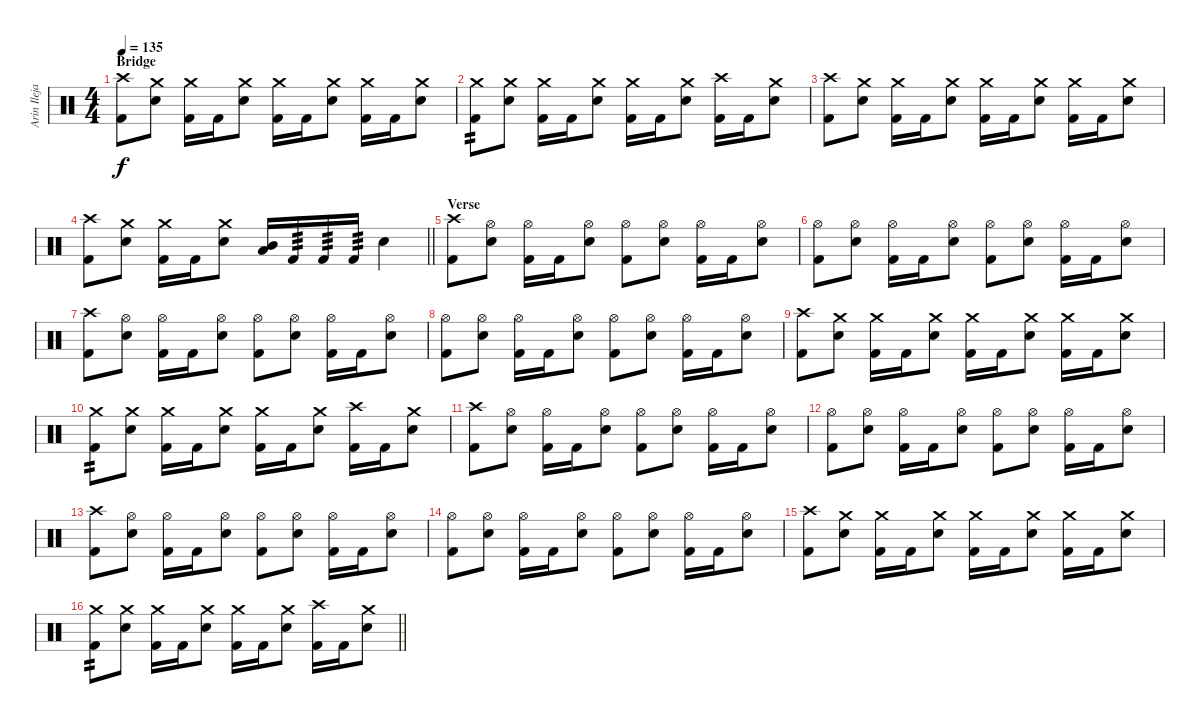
\track ("Arin Ilejay" "Arin Ileja") {instrument percussion}
\staff {score}
\articulation defaults
\ts (4 4)
\section ("" "Bridge")
\tempo 135
\clef neutral
\ks c
("Crash high (hit)" "Kick (hit) 2").8{dy f} ("Crash medium (hit)" "Electric Snare (hit)").8 ("Crash medium (hit)" "Kick (hit) 2").16 "Kick (hit) 2".16 ("Crash medium (hit)" "Electric Snare (hit)").8 ("Crash medium (hit)" "Kick (hit) 2").16 "Kick (hit) 2".16 ("Crash medium (hit)" "Electric Snare (hit)").8 ("Crash medium (hit)" "Kick (hit) 2").16 "Kick (hit) 2".16 ("Crash medium (hit)" "Electric Snare (hit)").8 |
("Crash medium (hit)" "Kick (hit) 2").8{tp 2} ("Crash medium (hit)" "Electric Snare (hit)").8 ("Crash medium (hit)" "Kick (hit) 2").16 "Kick (hit) 2".16 ("Crash medium (hit)" "Electric Snare (hit)").8 ("Crash medium (hit)" "Kick (hit) 2").16 "Kick (hit) 2".16 ("Crash medium (hit)" "Electric Snare (hit)").8 ("Crash high (hit)" "Kick (hit) 2").16 "Kick (hit) 2".16 ("Crash medium (hit)" "Electric Snare (hit)").8 |
("Crash high (hit)" "Kick (hit) 2").8 ("Crash medium (hit)" "Electric Snare (hit)").8 ("Crash medium (hit)" "Kick (hit) 2").16 "Kick (hit) 2".16 ("Crash medium (hit)" "Electric Snare (hit)").8 ("Crash medium (hit)" "Kick (hit) 2").16 "Kick (hit) 2".16 ("Crash medium (hit)" "Electric Snare (hit)").8 ("Crash medium (hit)" "Kick (hit) 2").16 "Kick (hit) 2".16 ("Crash medium (hit)" "Electric Snare (hit)").8 |
\barLineRight lightlight
("Crash high (hit)" "Kick (hit) 2").8 ("Crash medium (hit)" "Electric Snare (hit)").8 ("Crash medium (hit)" "Kick (hit) 2").16 "Kick (hit) 2".16 ("Crash medium (hit)" "Electric Snare (hit)").8 ("Mid Tom (hit)" "Low Tom (hit)").16 "Kick (hit) 2".16{tp 3} "Kick (hit) 2".16{tp 3} "Kick (hit) 2".16{tp 3} "Electric Snare (hit)".4 |
\section ("" "Verse")
("Crash high (hit)" "Kick (hit) 2").8 ("Hi-Hat (open)" "Electric Snare (hit)").8 ("Hi-Hat (open)" "Kick (hit) 2").16 "Kick (hit) 2".16 ("Hi-Hat (open)" "Electric Snare (hit)").8 ("Hi-Hat (open)" "Kick (hit) 2").8 ("Hi-Hat (open)" "Electric Snare (hit)").8 ("Hi-Hat (open)" "Kick (hit) 2").16 "Kick (hit) 2".16 ("Hi-Hat (open)" "Electric Snare (hit)").8 |
("Hi-Hat (open)" "Kick (hit) 2").8 ("Hi-Hat (open)" "Electric Snare (hit)").8 ("Hi-Hat (open)" "Kick (hit) 2").16 "Kick (hit) 2".16 ("Hi-Hat (open)" "Electric Snare (hit)").8 ("Hi-Hat (open)" "Kick (hit) 2").8 ("Hi-Hat (open)" "Electric Snare (hit)").8 ("Hi-Hat (open)" "Kick (hit) 2").16 "Kick (hit) 2".16 ("Hi-Hat (open)" "Electric Snare (hit)").8 |
("Crash high (hit)" "Kick (hit) 2").8 ("Hi-Hat (open)" "Electric Snare (hit)").8 ("Hi-Hat (open)" "Kick (hit) 2").16 "Kick (hit) 2".16 ("Hi-Hat (open)" "Electric Snare (hit)").8 ("Hi-Hat (open)" "Kick (hit) 2").8 ("Hi-Hat (open)" "Electric Snare (hit)").8 ("Hi-Hat (open)" "Kick (hit) 2").16 "Kick (hit) 2".16 ("Hi-Hat (open)" "Electric Snare (hit)").8 |
("Hi-Hat (open)" "Kick (hit) 2").8 ("Hi-Hat (open)" "Electric Snare (hit)").8 ("Hi-Hat (open)" "Kick (hit) 2").16 "Kick (hit) 2".16 ("Hi-Hat (open)" "Electric Snare (hit)").8 ("Hi-Hat (open)" "Kick (hit) 2").8 ("Hi-Hat (open)" "Electric Snare (hit)").8 ("Hi-Hat (open)" "Kick (hit) 2").16 "Kick (hit) 2".16 ("Hi-Hat (open)" "Electric Snare (hit)").8 |
("Crash high (hit)" "Kick (hit) 2").8 ("Crash medium (hit)" "Electric Snare (hit)").8 ("Crash medium (hit)" "Kick (hit) 2").16 "Kick (hit) 2".16 ("Crash medium (hit)" "Electric Snare (hit)").8 ("Crash medium (hit)" "Kick (hit) 2").16 "Kick (hit) 2".16 ("Crash medium (hit)" "Electric Snare (hit)").8 ("Crash medium (hit)" "Kick (hit) 2").16 "Kick (hit) 2".16 ("Crash medium (hit)" "Electric Snare (hit)").8 |
("Crash medium (hit)" "Kick (hit) 2").8{tp 2} ("Crash medium (hit)" "Electric Snare (hit)").8 ("Crash medium (hit)" "Kick (hit) 2").16 "Kick (hit) 2".16 ("Crash medium (hit)" "Electric Snare (hit)").8 ("Crash medium (hit)" "Kick (hit) 2").16 "Kick (hit) 2".16 ("Crash medium (hit)" "Electric Snare (hit)").8 ("Crash high (hit)" "Kick (hit) 2").16 "Kick (hit) 2".16 ("Crash medium (hit)" "Electric Snare (hit)").8 |
("Crash high (hit)" "Kick (hit) 2").8 ("Hi-Hat (open)" "Electric Snare (hit)").8 ("Hi-Hat (open)" "Kick (hit) 2").16 "Kick (hit) 2".16 ("Hi-Hat (open)" "Electric Snare (hit)").8 ("Hi-Hat (open)" "Kick (hit) 2").8 ("Hi-Hat (open)" "Electric Snare (hit)").8 ("Hi-Hat (open)" "Kick (hit) 2").16 "Kick (hit) 2".16 ("Hi-Hat (open)" "Electric Snare (hit)").8 |
("Hi-Hat (open)" "Kick (hit) 2").8 ("Hi-Hat (open)" "Electric Snare (hit)").8 ("Hi-Hat (open)" "Kick (hit) 2").16 "Kick (hit) 2".16 ("Hi-Hat (open)" "Electric Snare (hit)").8 ("Hi-Hat (open)" "Kick (hit) 2").8 ("Hi-Hat (open)" "Electric Snare (hit)").8 ("Hi-Hat (open)" "Kick (hit) 2").16 "Kick (hit) 2".16 ("Hi-Hat (open)" "Electric Snare (hit)").8 |
("Crash high (hit)" "Kick (hit) 2").8 ("Hi-Hat (open)" "Electric Snare (hit)").8 ("Hi-Hat (open)" "Kick (hit) 2").16 "Kick (hit) 2".16 ("Hi-Hat (open)" "Electric Snare (hit)").8 ("Hi-Hat (open)" "Kick (hit) 2").8 ("Hi-Hat (open)" "Electric Snare (hit)").8 ("Hi-Hat (open)" "Kick (hit) 2").16 "Kick (hit) 2".16 ("Hi-Hat (open)" "Electric Snare (hit)").8 |
("Hi-Hat (open)" "Kick (hit) 2").8 ("Hi-Hat (open)" "Electric Snare (hit)").8 ("Hi-Hat (open)" "Kick (hit) 2").16 "Kick (hit) 2".16 ("Hi-Hat (open)" "Electric Snare (hit)").8 ("Hi-Hat (open)" "Kick (hit) 2").8 ("Hi-Hat (open)" "Electric Snare (hit)").8 ("Hi-Hat (open)" "Kick (hit) 2").16 "Kick (hit) 2".16 ("Hi-Hat (open)" "Electric Snare (hit)").8 |
("Crash high (hit)" "Kick (hit) 2").8 ("Crash medium (hit)" "Electric Snare (hit)").8 ("Crash medium (hit)" "Kick (hit) 2").16 "Kick (hit) 2".16 ("Crash medium (hit)" "Electric Snare (hit)").8 ("Crash medium (hit)" "Kick (hit) 2").16 "Kick (hit) 2".16 ("Crash medium (hit)" "Electric Snare (hit)").8 ("Crash medium (hit)" "Kick (hit) 2").16 "Kick (hit) 2".16 ("Crash medium (hit)" "Electric Snare (hit)").8 |
\barLineRight lightlight
("Crash medium (hit)" "Kick (hit) 2").8{tp 2} ("Crash medium (hit)" "Electric Snare (hit)").8 ("Crash medium (hit)" "Kick (hit) 2").16 "Kick (hit) 2".16 ("Crash medium (hit)" "Electric Snare (hit)").8 ("Crash medium (hit)" "Kick (hit) 2").16 "Kick (hit) 2".16 ("Crash medium (hit)" "Electric Snare (hit)").8 ("Crash high (hit)" "Kick (hit) 2").16 "Kick (hit) 2".16 ("Crash medium (hit)" "Electric Snare (hit)").8
